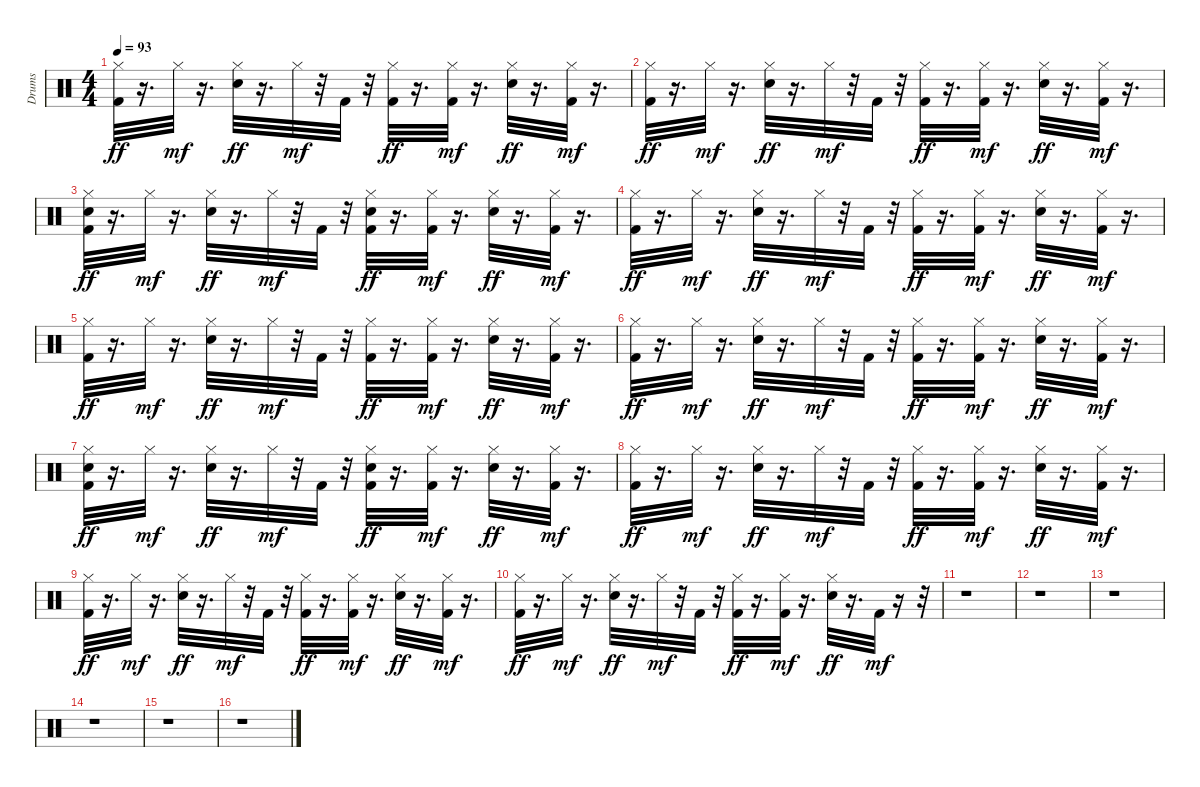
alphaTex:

\track ("Drums" "Drums") {instrument percussion}
\staff {score}
\articulation defaults
\ts (4 4)
\tempo 93
\clef neutral
\ks c
("Kick (hit) 2" "Hi-Hat (closed)").32{dy ff} r.16{d} "Hi-Hat (closed)".32{dy mf} r.16{d} ("Snare (hit) 2" "Hi-Hat (closed)").32{dy ff} r.16{d} "Hi-Hat (closed)".32{dy mf} r.32 "Kick (hit) 2".32 r.32 ("Kick (hit) 2" "Hi-Hat (closed)").32{dy ff} r.16{d} ("Kick (hit) 2" "Hi-Hat (closed)").32{dy mf} r.16{d} ("Snare (hit) 2" "Hi-Hat (closed)").32{dy ff} r.16{d} ("Kick (hit) 2" "Hi-Hat (closed)").32{dy mf} r.16{d} |
("Kick (hit) 2" "Hi-Hat (closed)").32{dy ff} r.16{d} "Hi-Hat (closed)".32{dy mf} r.16{d} ("Snare (hit) 2" "Hi-Hat (closed)").32{dy ff} r.16{d} "Hi-Hat (closed)".32{dy mf} r.32 "Kick (hit) 2".32 r.32 ("Kick (hit) 2" "Hi-Hat (closed)").32{dy ff} r.16{d} ("Kick (hit) 2" "Hi-Hat (closed)").32{dy mf} r.16{d} ("Snare (hit) 2" "Hi-Hat (closed)").32{dy ff} r.16{d} ("Kick (hit) 2" "Hi-Hat (closed)").32{dy mf} r.16{d} |
("Kick (hit) 2" "Snare (hit) 2" "Hi-Hat (closed)").32{dy ff} r.16{d} "Hi-Hat (closed)".32{dy mf} r.16{d} ("Snare (hit) 2" "Hi-Hat (closed)").32{dy ff} r.16{d} "Hi-Hat (closed)".32{dy mf} r.32 "Kick (hit) 2".32 r.32 ("Kick (hit) 2" "Snare (hit) 2" "Hi-Hat (closed)").32{dy ff} r.16{d} ("Kick (hit) 2" "Hi-Hat (closed)").32{dy mf} r.16{d} ("Snare (hit) 2" "Hi-Hat (closed)").32{dy ff} r.16{d} ("Kick (hit) 2" "Hi-Hat (closed)").32{dy mf} r.16{d} |
("Kick (hit) 2" "Hi-Hat (closed)").32{dy ff} r.16{d} "Hi-Hat (closed)".32{dy mf} r.16{d} ("Snare (hit) 2" "Hi-Hat (closed)").32{dy ff} r.16{d} "Hi-Hat (closed)".32{dy mf} r.32 "Kick (hit) 2".32 r.32 ("Kick (hit) 2" "Hi-Hat (closed)").32{dy ff} r.16{d} ("Kick (hit) 2" "Hi-Hat (closed)").32{dy mf} r.16{d} ("Snare (hit) 2" "Hi-Hat (closed)").32{dy ff} r.16{d} ("Kick (hit) 2" "Hi-Hat (closed)").32{dy mf} r.16{d} |
("Kick (hit) 2" "Hi-Hat (closed)").32{dy ff} r.16{d} "Hi-Hat (closed)".32{dy mf} r.16{d} ("Snare (hit) 2" "Hi-Hat (closed)").32{dy ff} r.16{d} "Hi-Hat (closed)".32{dy mf} r.32 "Kick (hit) 2".32 r.32 ("Kick (hit) 2" "Hi-Hat (closed)").32{dy ff} r.16{d} ("Kick (hit) 2" "Hi-Hat (closed)").32{dy mf} r.16{d} ("Snare (hit) 2" "Hi-Hat (closed)").32{dy ff} r.16{d} ("Kick (hit) 2" "Hi-Hat (closed)").32{dy mf} r.16{d} |
("Kick (hit) 2" "Hi-Hat (closed)").32{dy ff} r.16{d} "Hi-Hat (closed)".32{dy mf} r.16{d} ("Snare (hit) 2" "Hi-Hat (closed)").32{dy ff} r.16{d} "Hi-Hat (closed)".32{dy mf} r.32 "Kick (hit) 2".32 r.32 ("Kick (hit) 2" "Hi-Hat (closed)").32{dy ff} r.16{d} ("Kick (hit) 2" "Hi-Hat (closed)").32{dy mf} r.16{d} ("Snare (hit) 2" "Hi-Hat (closed)").32{dy ff} r.16{d} ("Kick (hit) 2" "Hi-Hat (closed)").32{dy mf} r.16{d} |
("Kick (hit) 2" "Snare (hit) 2" "Hi-Hat (closed)").32{dy ff} r.16{d} "Hi-Hat (closed)".32{dy mf} r.16{d} ("Snare (hit) 2" "Hi-Hat (closed)").32{dy ff} r.16{d} "Hi-Hat (closed)".32{dy mf} r.32 "Kick (hit) 2".32 r.32 ("Kick (hit) 2" "Snare (hit) 2" "Hi-Hat (closed)").32{dy ff} r.16{d} ("Kick (hit) 2" "Hi-Hat (closed)").32{dy mf} r.16{d} ("Snare (hit) 2" "Hi-Hat (closed)").32{dy ff} r.16{d} ("Kick (hit) 2" "Hi-Hat (closed)").32{dy mf} r.16{d} |
("Kick (hit) 2" "Hi-Hat (closed)").32{dy ff} r.16{d} "Hi-Hat (closed)".32{dy mf} r.16{d} ("Snare (hit) 2" "Hi-Hat (closed)").32{dy ff} r.16{d} "Hi-Hat (closed)".32{dy mf} r.32 "Kick (hit) 2".32 r.32 ("Kick (hit) 2" "Hi-Hat (closed)").32{dy ff} r.16{d} ("Kick (hit) 2" "Hi-Hat (closed)").32{dy mf} r.16{d} ("Snare (hit) 2" "Hi-Hat (closed)").32{dy ff} r.16{d} ("Kick (hit) 2" "Hi-Hat (closed)").32{dy mf} r.16{d} |
("Kick (hit) 2" "Hi-Hat (closed)").32{dy ff} r.16{d} "Hi-Hat (closed)".32{dy mf} r.16{d} ("Snare (hit) 2" "Hi-Hat (closed)").32{dy ff} r.16{d} "Hi-Hat (closed)".32{dy mf} r.32 "Kick (hit) 2".32 r.32 ("Kick (hit) 2" "Hi-Hat (closed)").32{dy ff} r.16{d} ("Kick (hit) 2" "Hi-Hat (closed)").32{dy mf} r.16{d} ("Snare (hit) 2" "Hi-Hat (closed)").32{dy ff} r.16{d} ("Kick (hit) 2" "Hi-Hat (closed)").32{dy mf} r.16{d} |
("Kick (hit) 2" "Hi-Hat (closed)").32{dy ff} r.16{d} "Hi-Hat (closed)".32{dy mf} r.16{d} ("Snare (hit) 2" "Hi-Hat (closed)").32{dy ff} r.16{d} "Hi-Hat (closed)".32{dy mf} r.32 "Kick (hit) 2".32 r.32 ("Kick (hit) 2" "Hi-Hat (closed)").32{dy ff} r.16{d} ("Kick (hit) 2" "Hi-Hat (closed)").32{dy mf} r.16{d} ("Snare (hit) 2" "Hi-Hat (closed)").32{dy ff} r.16{d} "Kick (hit) 2".32{dy mf} r.16 r.32 |
r.1 |
r.1 |
r.1 |
r.1 |
r.1 |
r.1
